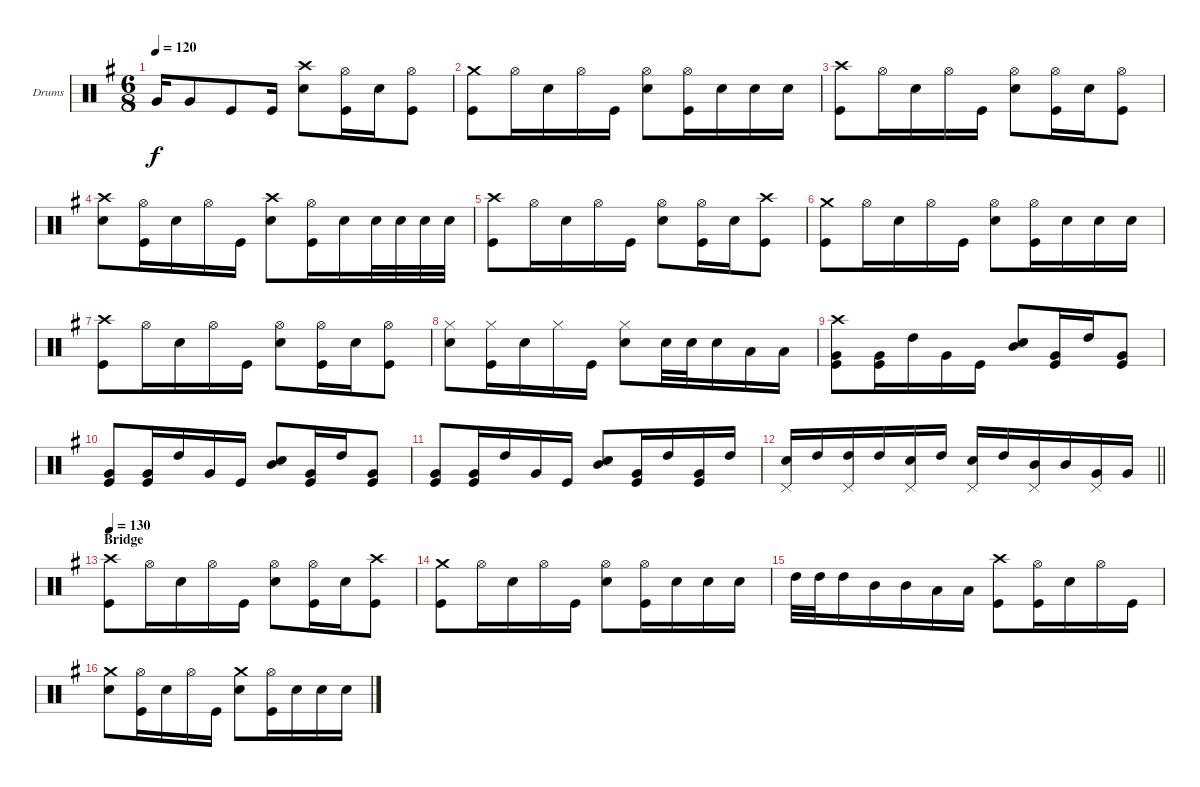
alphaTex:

\bracketExtendMode groupsimilarinstruments
\firstSystemTrackNameOrientation horizontal
\otherSystemsTrackNameOrientation horizontal
\track ("drums (Anton Zulganov)" "Drums") {instrument percussion}
\staff {score}
\articulation defaults
\ts (6 8)
\tempo 120
\clef neutral
\ks eminor "Very Low Tom (hit)".16{dy f} "Very Low Tom (hit)".8 "Kick (hit)".8 "Kick (hit)".16
("Snare (hit) 2" "Crash high (hit)").8 ("Kick (hit)" "Hi-Hat (open)").16 "Snare (hit) 2".16 ("Kick (hit)" "Hi-Hat (open)").8 |
("Kick (hit)" "Crash medium (hit)").8 "Hi-Hat (open)".16 "Snare (hit) 2".16 "Hi-Hat (open)".16 "Kick (hit)".16 ("Snare (hit) 2" "Hi-Hat (open)").8 ("Kick (hit)" "Hi-Hat (open)").16 "Snare (hit) 2".16 "Snare (hit) 2".16 "Snare (hit) 2".16 |
("Kick (hit)" "Crash high (hit)").8 "Hi-Hat (open)".16 "Snare (hit) 2".16 "Hi-Hat (open)".16 "Kick (hit)".16 ("Snare (hit) 2" "Hi-Hat (open)").8 ("Kick (hit)" "Hi-Hat (open)").16 "Snare (hit) 2".16 ("Kick (hit)" "Hi-Hat (open)").8 |
("Snare (hit) 2" "Crash high (hit)").8 ("Kick (hit)" "Hi-Hat (open)").16 "Snare (hit) 2".16 "Hi-Hat (open)".16 "Kick (hit)".16 ("Snare (hit) 2" "Crash high (hit)").8 ("Kick (hit)" "Hi-Hat (open)").16 "Snare (hit) 2".16 "Snare (hit) 2".32 "Snare (hit) 2".32 "Snare (hit) 2".32 "Snare (hit) 2".32 |
("Kick (hit)" "Crash high (hit)").8 "Hi-Hat (open)".16 "Snare (hit) 2".16 "Hi-Hat (open)".16 "Kick (hit)".16 ("Snare (hit) 2" "Hi-Hat (open)").8 ("Kick (hit)" "Hi-Hat (open)").16 "Snare (hit) 2".16 ("Kick (hit)" "Crash high (hit)").8 |
("Kick (hit)" "Crash medium (hit)").8 "Hi-Hat (open)".16 "Snare (hit) 2".16 "Hi-Hat (open)".16 "Kick (hit)".16 ("Snare (hit) 2" "Hi-Hat (open)").8 ("Kick (hit)" "Hi-Hat (open)").16 "Snare (hit) 2".16 "Snare (hit) 2".16 "Snare (hit) 2".16 |
("Kick (hit)" "Crash high (hit)").8 "Hi-Hat (open)".16 "Snare (hit) 2".16 "Hi-Hat (open)".16 "Kick (hit)".16 ("Snare (hit) 2" "Hi-Hat (open)").8 ("Kick (hit)" "Hi-Hat (open)").16 "Snare (hit) 2".16 ("Kick (hit)" "Hi-Hat (open)").8 |
("Snare (hit) 2" "Hi-Hat (closed)").8 ("Kick (hit)" "Hi-Hat (closed)").16 "Snare (hit) 2".16 "Hi-Hat (closed)".16 "Kick (hit)".16 ("Snare (hit) 2" "Hi-Hat (closed)").8 "Snare (hit) 2".32 "Snare (hit) 2".32 "Snare (hit) 2".16 "Low Tom (hit)".16 "Low Tom (hit)".16 |
("Kick (hit)" "Very Low Tom (hit)" "Crash high (hit)").8 ("Kick (hit)" "Very Low Tom (hit)").16 "High Tom (hit)".16 "Very Low Tom (hit)".16 "Kick (hit)".16 ("Snare (hit) 2" "Mid Tom (hit)").8 ("Kick (hit)" "Very Low Tom (hit)").16 "High Tom (hit)".16 ("Kick (hit)" "Very Low Tom (hit)").8 |
("Kick (hit)" "Very Low Tom (hit)").8 ("Kick (hit)" "Very Low Tom (hit)").16 "High Tom (hit)".16 "Very Low Tom (hit)".16 "Kick (hit)".16 ("Snare (hit) 2" "Mid Tom (hit)").8 ("Kick (hit)" "Very Low Tom (hit)").16 "High Tom (hit)".16 ("Kick (hit)" "Very Low Tom (hit)").8 |
("Kick (hit)" "Very Low Tom (hit)").8 ("Kick (hit)" "Very Low Tom (hit)").16 "High Tom (hit)".16 "Very Low Tom (hit)".16 "Kick (hit)".16 ("Snare (hit) 2" "Mid Tom (hit)").8 ("Kick (hit)" "Very Low Tom (hit)").16 "High Tom (hit)".16 ("Kick (hit)" "Very Low Tom (hit)").16 "High Tom (hit)".16 |
\barLineRight lightlight
("Snare (hit) 2" "Pedal Hi-Hat (hit)").16 "High Tom (hit)".16 ("Pedal Hi-Hat (hit)" "High Tom (hit)").16 "High Tom (hit)".16 ("Snare (hit) 2" "Pedal Hi-Hat (hit)").16 "High Tom (hit)".16 ("Pedal Hi-Hat (hit)" "Snare (hit) 2").16 "High Tom (hit)".16 ("Mid Tom (hit)" "Pedal Hi-Hat (hit)").16 "Mid Tom (hit)".16 ("Very Low Tom (hit)" "Pedal Hi-Hat (hit)").16 "Very Low Tom (hit)".16 |
\section ("" "Bridge")
\tempo 130
("Kick (hit)" "Crash high (hit)").8 "Hi-Hat (open)".16 "Snare (hit) 2".16 "Hi-Hat (open)".16 "Kick (hit)".16 ("Snare (hit) 2" "Hi-Hat (open)").8 ("Kick (hit)" "Hi-Hat (open)").16 "Snare (hit) 2".16 ("Kick (hit)" "Crash high (hit)").8 |
("Kick (hit)" "Crash medium (hit)").8 "Hi-Hat (open)".16 "Snare (hit) 2".16 "Hi-Hat (open)".16 "Kick (hit)".16 ("Snare (hit) 2" "Hi-Hat (open)").8 ("Kick (hit)" "Hi-Hat (open)").16 "Snare (hit) 2".16 "Snare (hit) 2".16 "Snare (hit) 2".16 |
"High Tom (hit)".32 "High Tom (hit)".32 "High Tom (hit)".16 "Mid Tom (hit)".16 "Mid Tom (hit)".16 "Low Tom (hit)".16 "Low Tom (hit)".16 ("Kick (hit)" "Crash high (hit)").8 ("Kick (hit)" "Hi-Hat (open)").16 "Snare (hit) 2".16 "Hi-Hat (open)".16 "Kick (hit)".16 |
("Snare (hit) 2" "Crash medium (hit)").8 ("Kick (hit)" "Hi-Hat (open)").16 "Snare (hit) 2".16 "Hi-Hat (open)".16 "Kick (hit)".16 ("Snare (hit) 2" "Crash medium (hit)").8 ("Kick (hit)" "Hi-Hat (open)").16 "Snare (hit) 2".16 "Snare (hit) 2".16 "Snare (hit) 2".16
